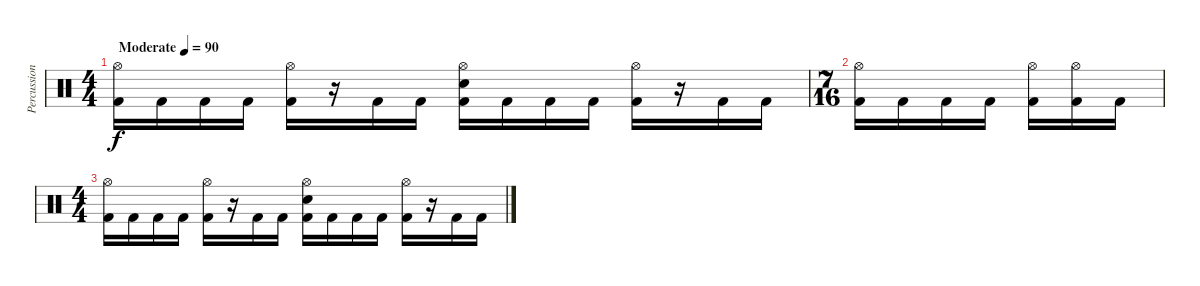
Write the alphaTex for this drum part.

\track ("Percussion" "Percussion") {instrument percussion}
\staff {score}
\articulation defaults
\ts (4 4)
\tempo (90 "Moderate")
\clef neutral
\ks c
("Hi-Hat (open)" "Kick (hit) 2").16{dy f} "Kick (hit) 2".16 "Kick (hit) 2".16 "Kick (hit) 2".16 ("Hi-Hat (open)" "Kick (hit) 2").16 r.16 "Kick (hit) 2".16 "Kick (hit) 2".16 ("Hi-Hat (open)" "Electric Snare (hit)" "Kick (hit) 2").16 "Kick (hit) 2".16 "Kick (hit) 2".16 "Kick (hit) 2".16 ("Hi-Hat (open)" "Kick (hit) 2").16 r.16 "Kick (hit) 2".16 "Kick (hit) 2".16 |
\ts (7 16)
("Hi-Hat (open)" "Kick (hit) 2").16 "Kick (hit) 2".16 "Kick (hit) 2".16 "Kick (hit) 2".16 ("Hi-Hat (open)" "Kick (hit) 2").16 ("Hi-Hat (open)" "Kick (hit) 2").16 "Kick (hit) 2".16 |
\ts (4 4)
("Hi-Hat (open)" "Kick (hit) 2").16 "Kick (hit) 2".16 "Kick (hit) 2".16 "Kick (hit) 2".16 ("Hi-Hat (open)" "Kick (hit) 2").16 r.16 "Kick (hit) 2".16 "Kick (hit) 2".16 ("Hi-Hat (open)" "Electric Snare (hit)" "Kick (hit) 2").16 "Kick (hit) 2".16 "Kick (hit) 2".16 "Kick (hit) 2".16 ("Hi-Hat (open)" "Kick (hit) 2").16 r.16 "Kick (hit) 2".16 "Kick (hit) 2".16
